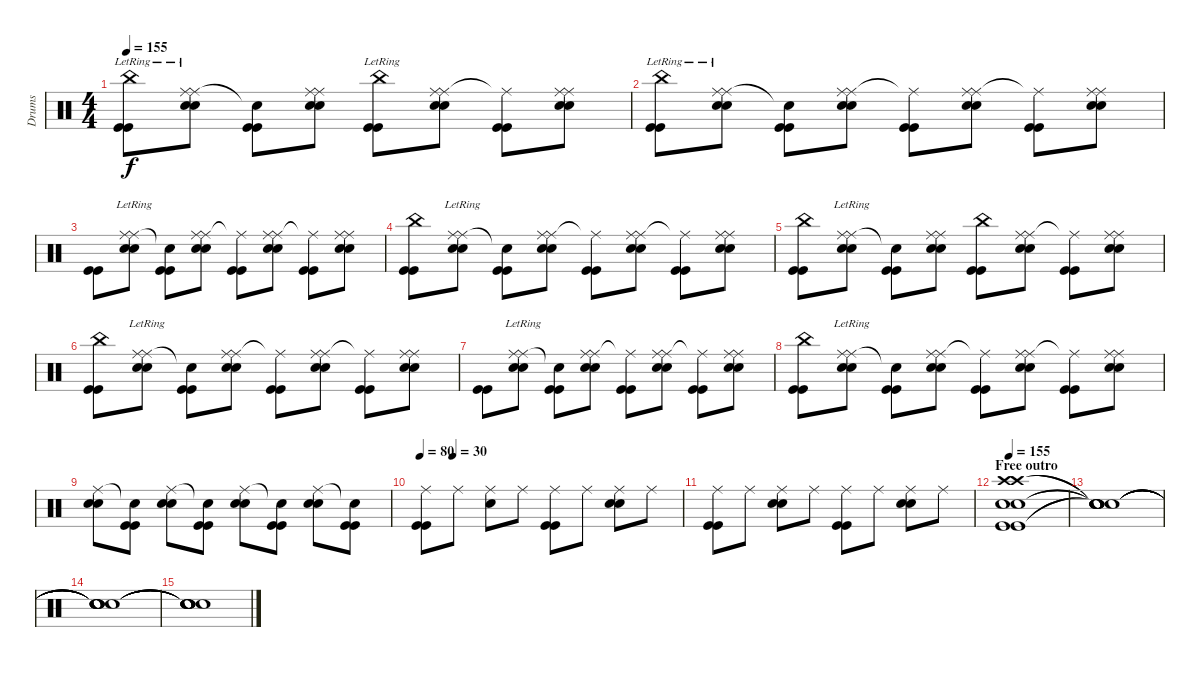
\track ("Drums" "Drums") {instrument percussion}
\staff {score}
\articulation defaults
\ts (4 4)
\tempo 155
\clef neutral
\ks c
("China (hit)"{lr} "Kick (hit)" "Kick (hit)").8{dy f} ("Ride (middle)"{lr} "Snare (hit) 2" "Snare (hit) 2" "Ride (middle)").8 ("Snare (hit)"{t} "Kick (hit)" "Kick (hit)").8 ("Ride (middle)" "Snare (hit) 2" "Snare (hit) 2" "Ride (middle)").8 ("China (hit)"{lr} "Kick (hit)" "Kick (hit)").8 ("Ride (middle)" "Snare (hit) 2" "Snare (hit) 2" "Ride (middle)").8 ("Ride (middle)"{t} "Kick (hit)" "Kick (hit)").8 ("Ride (middle)" "Snare (hit) 2" "Snare (hit) 2" "Ride (middle)").8 |
("China (hit)"{lr} "Kick (hit)" "Kick (hit)").8 ("Ride (middle)"{lr} "Snare (hit) 2" "Snare (hit) 2" "Ride (middle)").8 ("Snare (hit)"{t} "Kick (hit)" "Kick (hit)").8 ("Ride (middle)" "Snare (hit) 2" "Snare (hit) 2" "Ride (middle)").8 ("Ride (middle)"{t} "Kick (hit)" "Kick (hit)").8 ("Ride (middle)" "Snare (hit) 2" "Snare (hit) 2" "Ride (middle)").8 ("Ride (middle)"{t} "Kick (hit)" "Kick (hit)").8 ("Ride (middle)" "Snare (hit) 2" "Snare (hit) 2" "Ride (middle)").8 |
("Kick (hit)" "Kick (hit)").8 ("Ride (middle)"{lr} "Snare (hit) 2" "Snare (hit) 2" "Ride (middle)").8 ("Snare (hit)"{t} "Kick (hit)" "Kick (hit)").8 ("Ride (middle)" "Snare (hit) 2" "Snare (hit) 2" "Ride (middle)").8 ("Ride (middle)"{t} "Kick (hit)" "Kick (hit)").8 ("Ride (middle)" "Snare (hit) 2" "Snare (hit) 2" "Ride (middle)").8 ("Ride (middle)"{t} "Kick (hit)" "Kick (hit)").8 ("Ride (middle)" "Snare (hit) 2" "Snare (hit) 2" "Ride (middle)").8 |
("China (hit)" "Kick (hit)" "Kick (hit)").8 ("Ride (middle)"{lr} "Snare (hit) 2" "Snare (hit) 2" "Ride (middle)").8 ("Snare (hit)"{t} "Kick (hit)" "Kick (hit)").8 ("Ride (middle)" "Snare (hit) 2" "Snare (hit) 2" "Ride (middle)").8 ("Ride (middle)"{t} "Kick (hit)" "Kick (hit)").8 ("Ride (middle)" "Snare (hit) 2" "Snare (hit) 2" "Ride (middle)").8 ("Ride (middle)"{t} "Kick (hit)" "Kick (hit)").8 ("Ride (middle)" "Snare (hit) 2" "Snare (hit) 2" "Ride (middle)").8 |
("China (hit)" "Kick (hit)" "Kick (hit)").8 ("Ride (middle)"{lr} "Snare (hit) 2" "Snare (hit) 2" "Ride (middle)").8 ("Snare (hit)"{t} "Kick (hit)" "Kick (hit)").8 ("Ride (middle)" "Snare (hit) 2" "Snare (hit) 2" "Ride (middle)").8 ("China (hit)" "Kick (hit)" "Kick (hit)").8 ("Ride (middle)" "Snare (hit) 2" "Snare (hit) 2" "Ride (middle)").8 ("Ride (middle)"{t} "Kick (hit)" "Kick (hit)").8 ("Ride (middle)" "Snare (hit) 2" "Snare (hit) 2" "Ride (middle)").8 |
("China (hit)" "Kick (hit)" "Kick (hit)").8 ("Ride (middle)"{lr} "Snare (hit) 2" "Snare (hit) 2" "Ride (middle)").8 ("Snare (hit)"{t} "Kick (hit)" "Kick (hit)").8 ("Ride (middle)" "Snare (hit) 2" "Snare (hit) 2" "Ride (middle)").8 ("Ride (middle)"{t} "Kick (hit)" "Kick (hit)").8 ("Ride (middle)" "Snare (hit) 2" "Snare (hit) 2" "Ride (middle)").8 ("Ride (middle)"{t} "Kick (hit)" "Kick (hit)").8 ("Ride (middle)" "Snare (hit) 2" "Snare (hit) 2" "Ride (middle)").8 |
("Kick (hit)" "Kick (hit)").8 ("Ride (middle)"{lr} "Snare (hit) 2" "Snare (hit) 2" "Ride (middle)").8 ("Snare (hit)"{t} "Kick (hit)" "Kick (hit)").8 ("Ride (middle)" "Snare (hit) 2" "Snare (hit) 2" "Ride (middle)").8 ("Ride (middle)"{t} "Kick (hit)" "Kick (hit)").8 ("Ride (middle)" "Snare (hit) 2" "Snare (hit) 2" "Ride (middle)").8 ("Ride (middle)"{t} "Kick (hit)" "Kick (hit)").8 ("Ride (middle)" "Snare (hit) 2" "Snare (hit) 2" "Ride (middle)").8 |
("China (hit)" "Kick (hit)" "Kick (hit)").8 ("Ride (middle)"{lr} "Snare (hit) 2" "Snare (hit) 2" "Ride (middle)").8 ("Snare (hit)"{t} "Kick (hit)" "Kick (hit)").8 ("Ride (middle)" "Snare (hit) 2" "Snare (hit) 2" "Ride (middle)").8 ("Ride (middle)"{t} "Kick (hit)" "Kick (hit)").8 ("Ride (middle)" "Snare (hit) 2" "Snare (hit) 2" "Ride (middle)").8 ("Ride (middle)"{t} "Kick (hit)" "Kick (hit)").8 ("Ride (middle)" "Snare (hit) 2" "Snare (hit) 2" "Ride (middle)").8 |
("Ride (middle)" "Snare (hit) 2" "Snare (hit) 2").8 ("Snare (hit)"{t} "Kick (hit)" "Kick (hit)").8 ("Ride (middle)" "Snare (hit) 2" "Snare (hit) 2").8 ("Snare (hit)"{t} "Kick (hit)" "Kick (hit)").8 ("Ride (middle)" "Snare (hit) 2" "Snare (hit) 2").8 ("Snare (hit)"{t} "Kick (hit)" "Kick (hit)").8 ("Ride (middle)" "Snare (hit) 2" "Snare (hit) 2").8 ("Snare (hit)"{t} "Kick (hit)" "Kick (hit)").8 |
\tempo 80
\tempo (30 0.125)
("Ride (middle)" "Kick (hit)" "Kick (hit)").8 "Ride (middle)".8 ("Ride (middle)" "Snare (hit) 2").8 "Ride (middle)".8 ("Ride (middle)" "Kick (hit)" "Kick (hit)").8 "Ride (middle)".8 ("Ride (middle)" "Snare (hit) 2" "Snare (hit) 2").8 "Ride (middle)".8 |
("Ride (middle)" "Kick (hit)" "Kick (hit)").8 "Ride (middle)".8 ("Ride (middle)" "Snare (hit) 2" "Snare (hit) 2").8 "Ride (middle)".8 ("Ride (middle)" "Kick (hit)" "Kick (hit)").8 "Ride (middle)".8 ("Ride (middle)" "Snare (hit) 2" "Snare (hit) 2").8 "Ride (middle)".8 |
\section ("" "Free outro")
\tempo 155
("Crash high (hit)" "Snare (hit) 2" "Snare (hit) 2" "Crash high (hit)" "Kick (hit)" "Kick (hit)").1 |
("Snare (hit)"{t} "Snare (hit)"{t} "Snare (hit)"{t} "Snare (hit)"{t} "Snare (hit)"{t} "Snare (hit)"{t}).1 |
("Snare (hit)"{t} "Snare (hit)"{t} "Snare (hit)"{t} "Snare (hit)"{t} "Snare (hit)"{t} "Snare (hit)"{t}).1 |
("Snare (hit)"{t} "Snare (hit)"{t} "Snare (hit)"{t} "Snare (hit)"{t} "Snare (hit)"{t} "Snare (hit)"{t}).1
